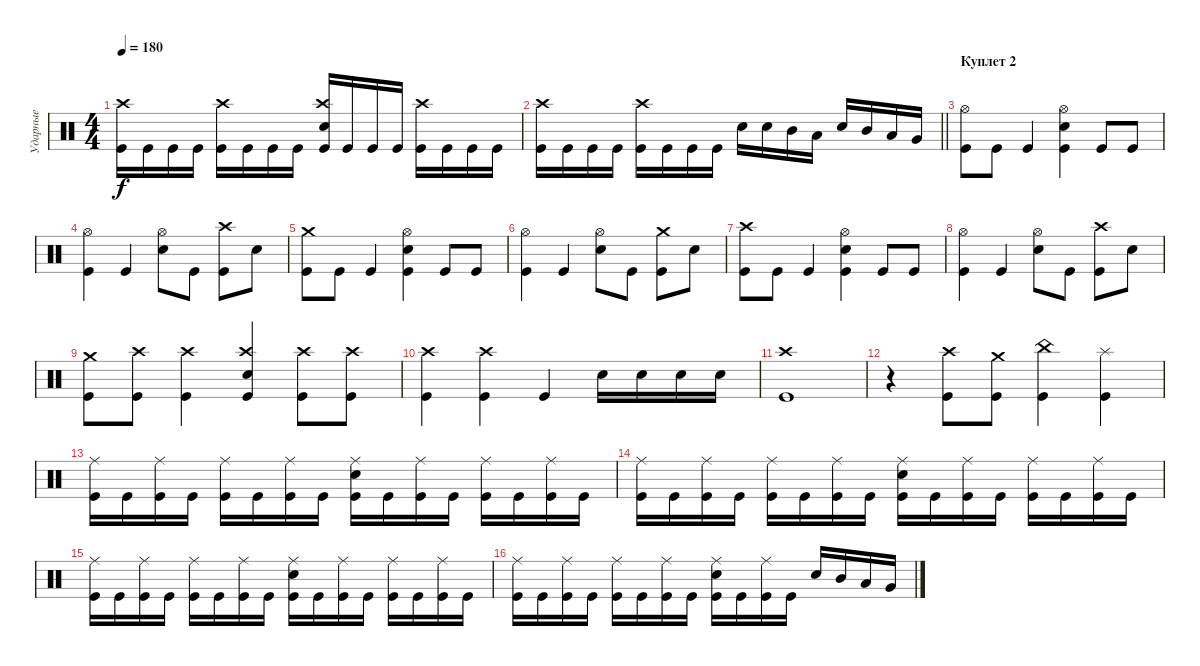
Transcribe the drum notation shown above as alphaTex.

\track ("Ударные" "Ударные") {instrument percussion}
\staff {score}
\articulation defaults
\ts (4 4)
\tempo 180
\clef neutral
\ks c
("Kick (hit)" "Crash high (hit)").16{dy f} "Kick (hit)".16 "Kick (hit)".16 "Kick (hit)".16 ("Kick (hit)" "Crash high (hit)").16 "Kick (hit)".16 "Kick (hit)".16 "Kick (hit)".16 ("Kick (hit)" "Crash high (hit)" "Snare (hit) 2").16 "Kick (hit)".16 "Kick (hit)".16 "Kick (hit)".16 ("Kick (hit)" "Crash high (hit)").16 "Kick (hit)".16 "Kick (hit)".16 "Kick (hit)".16 |
\barLineRight lightlight
("Kick (hit)" "Crash high (hit)").16 "Kick (hit)".16 "Kick (hit)".16 "Kick (hit)".16 ("Kick (hit)" "Crash high (hit)").16 "Kick (hit)".16 "Kick (hit)".16 "Kick (hit)".16 "Snare (hit) 2".16 "Snare (hit) 2".16 "Mid Tom (hit)".16 "Low Tom (hit)".16 "Snare (hit) 2".16 "Mid Tom (hit)".16 "Low Tom (hit)".16 "Very Low Tom (hit)".16 |
\section ("" "Куплет 2")
("Kick (hit)" "Hi-Hat (open)").8 "Kick (hit)".8 "Kick (hit)".4 ("Kick (hit)" "Hi-Hat (open)" "Snare (hit) 2").4 "Kick (hit)".8 "Kick (hit)".8 |
("Kick (hit)" "Hi-Hat (open)").4 "Kick (hit)".4 ("Snare (hit) 2" "Hi-Hat (open)").8 "Kick (hit)".8 ("Kick (hit)" "Crash high (hit)").8 "Snare (hit) 2".8 |
("Kick (hit)" "Crash medium (hit)").8 "Kick (hit)".8 "Kick (hit)".4 ("Kick (hit)" "Hi-Hat (open)" "Snare (hit) 2").4 "Kick (hit)".8 "Kick (hit)".8 |
("Kick (hit)" "Hi-Hat (open)").4 "Kick (hit)".4 ("Snare (hit) 2" "Hi-Hat (open)").8 "Kick (hit)".8 ("Kick (hit)" "Crash medium (hit)").8 "Snare (hit) 2".8 |
("Kick (hit)" "Crash high (hit)").8 "Kick (hit)".8 "Kick (hit)".4 ("Kick (hit)" "Hi-Hat (open)" "Snare (hit) 2").4 "Kick (hit)".8 "Kick (hit)".8 |
("Kick (hit)" "Hi-Hat (open)").4 "Kick (hit)".4 ("Snare (hit) 2" "Hi-Hat (open)").8 "Kick (hit)".8 ("Kick (hit)" "Crash high (hit)").8 "Snare (hit) 2".8 |
("Kick (hit)" "Crash medium (hit)").8 ("Kick (hit)" "Crash high (hit)").8 ("Kick (hit)" "Crash high (hit)").4 ("Kick (hit)" "Snare (hit) 2" "Crash high (hit)").4 ("Kick (hit)" "Crash high (hit)").8 ("Kick (hit)" "Crash high (hit)").8 |
("Kick (hit)" "Crash high (hit)").4 ("Kick (hit)" "Crash high (hit)").4 "Kick (hit)".4 "Snare (hit) 2".16 "Snare (hit) 2".16 "Snare (hit) 2".16 "Snare (hit) 2".16 |
("Kick (hit)" "Crash high (hit)").1 |
r.4 ("Crash high (hit)" "Kick (hit)").8 ("Crash medium (hit)" "Kick (hit)").8 ("China (hit)" "Kick (hit)").4 ("Kick (hit)" "Splash (hit)").4 |
("Kick (hit)" "Ride (middle)").16 "Kick (hit)".16 ("Kick (hit)" "Ride (middle)").16 "Kick (hit)".16 ("Kick (hit)" "Ride (middle)").16 "Kick (hit)".16 ("Kick (hit)" "Ride (middle)").16 "Kick (hit)".16 ("Kick (hit)" "Ride (middle)" "Snare (hit) 2").16 "Kick (hit)".16 ("Kick (hit)" "Ride (middle)").16 "Kick (hit)".16 ("Kick (hit)" "Ride (middle)").16 "Kick (hit)".16 ("Kick (hit)" "Ride (middle)").16 "Kick (hit)".16 |
("Kick (hit)" "Ride (middle)").16 "Kick (hit)".16 ("Kick (hit)" "Ride (middle)").16 "Kick (hit)".16 ("Kick (hit)" "Ride (middle)").16 "Kick (hit)".16 ("Kick (hit)" "Ride (middle)").16 "Kick (hit)".16 ("Kick (hit)" "Ride (middle)" "Snare (hit) 2").16 "Kick (hit)".16 ("Kick (hit)" "Ride (middle)").16 "Kick (hit)".16 ("Kick (hit)" "Ride (middle)").16 "Kick (hit)".16 ("Kick (hit)" "Ride (middle)").16 "Kick (hit)".16 |
("Kick (hit)" "Ride (middle)").16 "Kick (hit)".16 ("Kick (hit)" "Ride (middle)").16 "Kick (hit)".16 ("Kick (hit)" "Ride (middle)").16 "Kick (hit)".16 ("Kick (hit)" "Ride (middle)").16 "Kick (hit)".16 ("Kick (hit)" "Ride (middle)" "Snare (hit) 2").16 "Kick (hit)".16 ("Kick (hit)" "Ride (middle)").16 "Kick (hit)".16 ("Kick (hit)" "Ride (middle)").16 "Kick (hit)".16 ("Kick (hit)" "Ride (middle)").16 "Kick (hit)".16 |
("Kick (hit)" "Ride (middle)").16 "Kick (hit)".16 ("Kick (hit)" "Ride (middle)").16 "Kick (hit)".16 ("Kick (hit)" "Ride (middle)").16 "Kick (hit)".16 ("Kick (hit)" "Ride (middle)").16 "Kick (hit)".16 ("Kick (hit)" "Ride (middle)" "Snare (hit) 2").16 "Kick (hit)".16 ("Kick (hit)" "Ride (middle)").16 "Kick (hit)".16 "Snare (hit) 2".16 "Mid Tom (hit)".16 "Low Tom (hit)".16 "Very Low Tom (hit)".16
